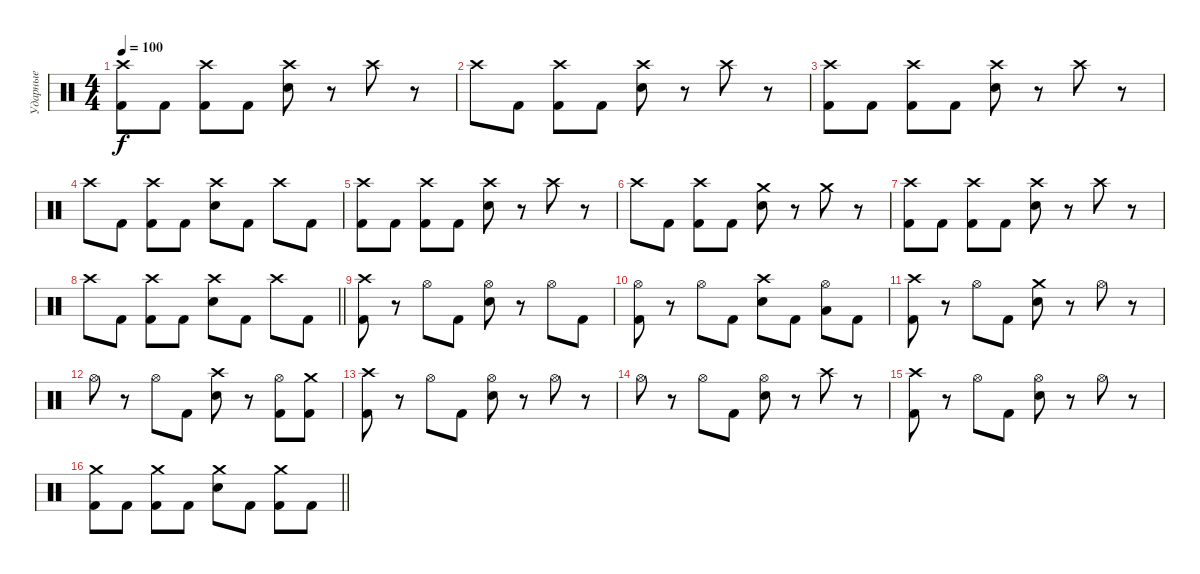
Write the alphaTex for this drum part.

\track ("Ударные" "Ударные") {instrument percussion}
\staff {score}
\articulation defaults
\ts (4 4)
\section ("" "")
\tempo 100
\clef neutral
\ks c
("Crash high (hit)" "Kick (hit) 2").8{dy f} "Kick (hit) 2".8 ("Crash high (hit)" "Kick (hit) 2").8 "Kick (hit) 2".8 ("Crash high (hit)" "Electric Snare (hit)").8 r.8 "Crash high (hit)".8 r.8 |
"Crash high (hit)".8 "Kick (hit) 2".8 ("Crash high (hit)" "Kick (hit) 2").8 "Kick (hit) 2".8 ("Crash high (hit)" "Electric Snare (hit)").8 r.8 "Crash high (hit)".8 r.8 |
("Crash high (hit)" "Kick (hit) 2").8 "Kick (hit) 2".8 ("Crash high (hit)" "Kick (hit) 2").8 "Kick (hit) 2".8 ("Crash high (hit)" "Electric Snare (hit)").8 r.8 "Crash high (hit)".8 r.8 |
"Crash high (hit)".8 "Kick (hit) 2".8 ("Crash high (hit)" "Kick (hit) 2").8 "Kick (hit) 2".8 ("Crash high (hit)" "Electric Snare (hit)").8 "Kick (hit) 2".8 "Crash high (hit)".8 "Kick (hit) 2".8 |
("Crash high (hit)" "Kick (hit) 2").8 "Kick (hit) 2".8 ("Crash high (hit)" "Kick (hit) 2").8 "Kick (hit) 2".8 ("Crash high (hit)" "Electric Snare (hit)").8 r.8 "Crash high (hit)".8 r.8 |
"Crash high (hit)".8 "Kick (hit) 2".8 ("Crash high (hit)" "Kick (hit) 2").8 "Kick (hit) 2".8 ("Crash medium (hit)" "Electric Snare (hit)").8 r.8 "Crash medium (hit)".8 r.8 |
("Crash high (hit)" "Kick (hit) 2").8 "Kick (hit) 2".8 ("Crash high (hit)" "Kick (hit) 2").8 "Kick (hit) 2".8 ("Crash high (hit)" "Electric Snare (hit)").8 r.8 "Crash high (hit)".8 r.8 |
\barLineRight lightlight "Crash high (hit)".8 "Kick (hit) 2".8
("Crash high (hit)" "Kick (hit) 2").8 "Kick (hit) 2".8 ("Crash high (hit)" "Electric Snare (hit)").8 "Kick (hit) 2".8 "Crash high (hit)".8 "Kick (hit) 2".8 |
\section ("" "")
("Crash high (hit)" "Kick (hit) 2").8 r.8 "Hi-Hat (open)".8 "Kick (hit) 2".8 ("Hi-Hat (open)" "Electric Snare (hit)").8 r.8 "Hi-Hat (open)".8 "Kick (hit) 2".8 |
("Hi-Hat (open)" "Kick (hit) 2").8 r.8 "Hi-Hat (open)".8 "Kick (hit) 2".8 ("Crash high (hit)" "Electric Snare (hit)").8 "Kick (hit) 2".8 ("Hi-Hat (open)" "Low Floor Tom (hit)").8 "Kick (hit) 2".8 |
("Crash high (hit)" "Kick (hit) 2").8 r.8 "Hi-Hat (open)".8 "Kick (hit) 2".8 ("Crash medium (hit)" "Electric Snare (hit)").8 r.8 "Hi-Hat (open)".8 r.8 |
"Hi-Hat (open)".8 r.8 "Hi-Hat (open)".8 "Kick (hit) 2".8 ("Crash high (hit)" "Electric Snare (hit)").8 r.8 ("Hi-Hat (open)" "Kick (hit) 2").8 ("Crash medium (hit)" "Kick (hit) 2").8 |
("Crash high (hit)" "Kick (hit) 2").8 r.8 "Hi-Hat (open)".8 "Kick (hit) 2".8 ("Hi-Hat (open)" "Electric Snare (hit)").8 r.8 "Hi-Hat (open)".8 r.8 |
"Hi-Hat (open)".8 r.8 "Hi-Hat (open)".8 "Kick (hit) 2".8 ("Hi-Hat (open)" "Electric Snare (hit)").8 r.8 "Crash high (hit)".8 r.8 |
("Crash high (hit)" "Kick (hit) 2").8 r.8 "Hi-Hat (open)".8 "Kick (hit) 2".8 ("Hi-Hat (open)" "Electric Snare (hit)").8 r.8 "Hi-Hat (open)".8 r.8 |
\barLineRight lightlight
("Crash medium (hit)" "Kick (hit) 2").8 "Kick (hit) 2".8 ("Crash medium (hit)" "Kick (hit) 2").8 "Kick (hit) 2".8 ("Crash medium (hit)" "Electric Snare (hit)").8 "Kick (hit) 2".8 ("Crash medium (hit)" "Kick (hit) 2").8 "Kick (hit) 2".8
